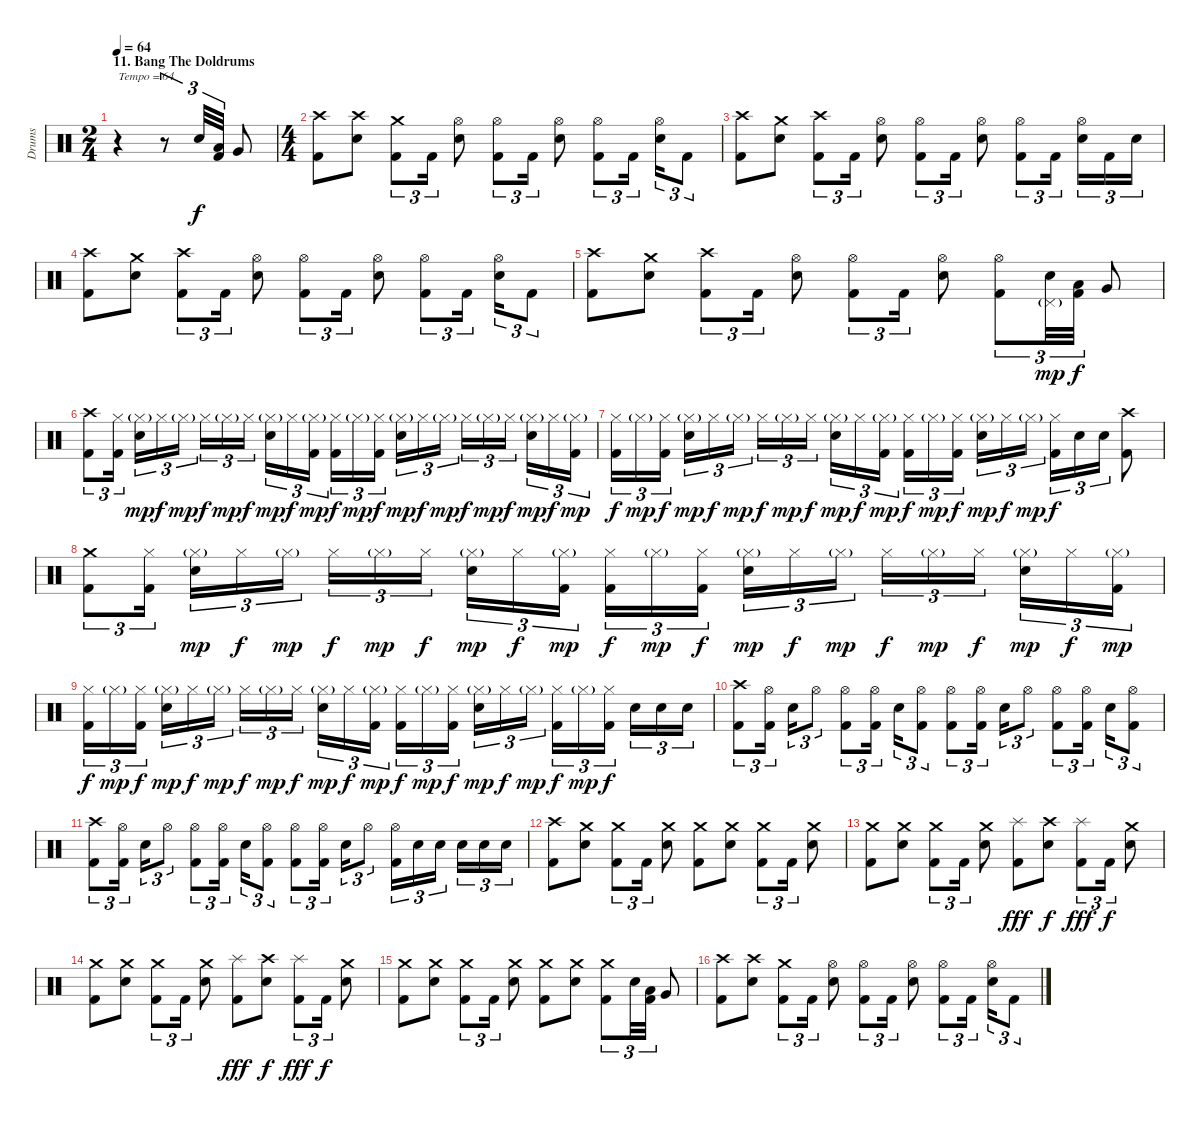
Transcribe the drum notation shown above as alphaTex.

\track ("Drums" "Drums") {instrument percussion}
\staff {score}
\articulation defaults
\ts (2 4)
\section ("" "11. Bang The Doldrums")
\tempo 64
\clef neutral
\ks c
r.4{txt "Tempo = 64" dy f} r.8{tu (3 2)} "Snare (hit) 2".32{tu (3 2)} ("Low Tom (hit)" "Kick (hit) 2").32{tu (3 2)} "Very Low Tom (hit)".8 |
\ts (4 4)
("Crash high (hit)" "Kick (hit) 2").8 ("Crash high (hit)" "Snare (hit) 2").8 ("Crash medium (hit)" "Kick (hit) 2").8{tu (3 2)} "Kick (hit) 2".16{tu (3 2)} ("Hi-Hat (open)" "Snare (hit) 2").8 ("Hi-Hat (open)" "Kick (hit) 2").8{tu (3 2)} "Kick (hit) 2".16{tu (3 2)} ("Hi-Hat (open)" "Snare (hit) 2").8 ("Hi-Hat (open)" "Kick (hit) 2").8{tu (3 2)} "Kick (hit) 2".16{tu (3 2)} ("Hi-Hat (open)" "Snare (hit) 2").16{tu (3 2)} "Kick (hit) 2".8{tu (3 2)} |
("Crash high (hit)" "Kick (hit) 2").8 ("Crash medium (hit)" "Snare (hit) 2").8 ("Crash high (hit)" "Kick (hit) 2").8{tu (3 2)} "Kick (hit) 2".16{tu (3 2)} ("Hi-Hat (open)" "Snare (hit) 2").8 ("Hi-Hat (open)" "Kick (hit) 2").8{tu (3 2)} "Kick (hit) 2".16{tu (3 2)} ("Hi-Hat (open)" "Snare (hit) 2").8 ("Hi-Hat (open)" "Kick (hit) 2").8{tu (3 2)} "Kick (hit) 2".16{tu (3 2)} ("Hi-Hat (open)" "Snare (hit) 2").16{tu (3 2)} "Kick (hit) 2".16{tu (3 2)} "Snare (hit) 2".16{tu (3 2)} |
("Crash high (hit)" "Kick (hit) 2").8 ("Crash medium (hit)" "Snare (hit) 2").8 ("Crash high (hit)" "Kick (hit) 2").8{tu (3 2)} "Kick (hit) 2".16{tu (3 2)} ("Hi-Hat (open)" "Snare (hit) 2").8 ("Hi-Hat (open)" "Kick (hit) 2").8{tu (3 2)} "Kick (hit) 2".16{tu (3 2)} ("Hi-Hat (open)" "Snare (hit) 2").8 ("Hi-Hat (open)" "Kick (hit) 2").8{tu (3 2)} "Kick (hit) 2".16{tu (3 2)} ("Hi-Hat (open)" "Snare (hit) 2").16{tu (3 2)} "Kick (hit) 2".8{tu (3 2)} |
("Crash high (hit)" "Kick (hit) 2").8 ("Crash medium (hit)" "Snare (hit) 2").8 ("Crash high (hit)" "Kick (hit) 2").8{tu (3 2)} "Kick (hit) 2".16{tu (3 2)} ("Hi-Hat (open)" "Snare (hit) 2").8 ("Hi-Hat (open)" "Kick (hit) 2").8{tu (3 2)} "Kick (hit) 2".16{tu (3 2)} ("Hi-Hat (open)" "Snare (hit) 2").8 ("Hi-Hat (open)" "Kick (hit) 2").8{tu (3 2)} ("Pedal Hi-Hat (hit)"{g} "Snare (hit) 2").32{tu (3 2) dy mp} ("Low Tom (hit)" "Kick (hit) 2").32{tu (3 2) dy f} "Very Low Tom (hit)".8 |
("Crash high (hit)" "Kick (hit) 2").8{tu (3 2)} ("Hi-Hat (closed)" "Kick (hit) 2").16{tu (3 2)} ("Hi-Hat (closed)"{g} "Snare (hit) 2").16{tu (3 2) dy mp} "Hi-Hat (closed)".16{tu (3 2) dy f} "Hi-Hat (closed)"{g}.16{tu (3 2) dy mp} "Hi-Hat (closed)".16{tu (3 2) dy f} "Hi-Hat (closed)"{g}.16{tu (3 2) dy mp} "Hi-Hat (closed)".16{tu (3 2) dy f} ("Hi-Hat (closed)"{g} "Snare (hit) 2").16{tu (3 2) dy mp} "Hi-Hat (closed)".16{tu (3 2) dy f} ("Hi-Hat (closed)"{g} "Kick (hit) 2").16{tu (3 2) dy mp} ("Hi-Hat (closed)" "Kick (hit) 2").16{tu (3 2) dy f} "Hi-Hat (closed)"{g}.16{tu (3 2) dy mp} ("Hi-Hat (closed)" "Kick (hit) 2").16{tu (3 2) dy f} ("Hi-Hat (closed)"{g} "Snare (hit) 2").16{tu (3 2) dy mp} "Hi-Hat (closed)".16{tu (3 2) dy f} "Hi-Hat (closed)"{g}.16{tu (3 2) dy mp} "Hi-Hat (closed)".16{tu (3 2) dy f} "Hi-Hat (closed)"{g}.16{tu (3 2) dy mp} "Hi-Hat (closed)".16{tu (3 2) dy f} ("Hi-Hat (closed)"{g} "Snare (hit) 2").16{tu (3 2) dy mp} "Hi-Hat (closed)".16{tu (3 2) dy f} ("Hi-Hat (closed)"{g} "Kick (hit) 2").16{tu (3 2) dy mp} |
("Hi-Hat (closed)" "Kick (hit) 2").16{tu (3 2) dy f} "Hi-Hat (closed)"{g}.16{tu (3 2) dy mp} ("Hi-Hat (closed)" "Kick (hit) 2").16{tu (3 2) dy f} ("Hi-Hat (closed)"{g} "Snare (hit) 2").16{tu (3 2) dy mp} "Hi-Hat (closed)".16{tu (3 2) dy f} "Hi-Hat (closed)"{g}.16{tu (3 2) dy mp} "Hi-Hat (closed)".16{tu (3 2) dy f} "Hi-Hat (closed)"{g}.16{tu (3 2) dy mp} "Hi-Hat (closed)".16{tu (3 2) dy f} ("Hi-Hat (closed)"{g} "Snare (hit) 2").16{tu (3 2) dy mp} "Hi-Hat (closed)".16{tu (3 2) dy f} ("Hi-Hat (closed)"{g} "Kick (hit) 2").16{tu (3 2) dy mp} ("Hi-Hat (closed)" "Kick (hit) 2").16{tu (3 2) dy f} "Hi-Hat (closed)"{g}.16{tu (3 2) dy mp} ("Hi-Hat (closed)" "Kick (hit) 2").16{tu (3 2) dy f} ("Hi-Hat (closed)"{g} "Snare (hit) 2").16{tu (3 2) dy mp} "Hi-Hat (closed)".16{tu (3 2) dy f} "Hi-Hat (closed)"{g}.16{tu (3 2) dy mp} ("Hi-Hat (closed)" "Kick (hit) 2").16{tu (3 2) dy f} "Snare (hit) 2".16{tu (3 2)} "Snare (hit) 2".16{tu (3 2)} ("Crash high (hit)" "Kick (hit) 2").8 |
("Crash medium (hit)" "Kick (hit) 2").8{tu (3 2)} ("Hi-Hat (closed)" "Kick (hit) 2").16{tu (3 2)} ("Hi-Hat (closed)"{g} "Snare (hit) 2").16{tu (3 2) dy mp} "Hi-Hat (closed)".16{tu (3 2) dy f} "Hi-Hat (closed)"{g}.16{tu (3 2) dy mp} "Hi-Hat (closed)".16{tu (3 2) dy f} "Hi-Hat (closed)"{g}.16{tu (3 2) dy mp} "Hi-Hat (closed)".16{tu (3 2) dy f} ("Hi-Hat (closed)"{g} "Snare (hit) 2").16{tu (3 2) dy mp} "Hi-Hat (closed)".16{tu (3 2) dy f} ("Hi-Hat (closed)"{g} "Kick (hit) 2").16{tu (3 2) dy mp} ("Hi-Hat (closed)" "Kick (hit) 2").16{tu (3 2) dy f} "Hi-Hat (closed)"{g}.16{tu (3 2) dy mp} ("Hi-Hat (closed)" "Kick (hit) 2").16{tu (3 2) dy f} ("Hi-Hat (closed)"{g} "Snare (hit) 2").16{tu (3 2) dy mp} "Hi-Hat (closed)".16{tu (3 2) dy f} "Hi-Hat (closed)"{g}.16{tu (3 2) dy mp} "Hi-Hat (closed)".16{tu (3 2) dy f} "Hi-Hat (closed)"{g}.16{tu (3 2) dy mp} "Hi-Hat (closed)".16{tu (3 2) dy f} ("Hi-Hat (closed)"{g} "Snare (hit) 2").16{tu (3 2) dy mp} "Hi-Hat (closed)".16{tu (3 2) dy f} ("Hi-Hat (closed)"{g} "Kick (hit) 2").16{tu (3 2) dy mp} |
("Hi-Hat (closed)" "Kick (hit) 2").16{tu (3 2) dy f} "Hi-Hat (closed)"{g}.16{tu (3 2) dy mp} ("Hi-Hat (closed)" "Kick (hit) 2").16{tu (3 2) dy f} ("Hi-Hat (closed)"{g} "Snare (hit) 2").16{tu (3 2) dy mp} "Hi-Hat (closed)".16{tu (3 2) dy f} "Hi-Hat (closed)"{g}.16{tu (3 2) dy mp} "Hi-Hat (closed)".16{tu (3 2) dy f} "Hi-Hat (closed)"{g}.16{tu (3 2) dy mp} "Hi-Hat (closed)".16{tu (3 2) dy f} ("Hi-Hat (closed)"{g} "Snare (hit) 2").16{tu (3 2) dy mp} "Hi-Hat (closed)".16{tu (3 2) dy f} ("Hi-Hat (closed)"{g} "Kick (hit) 2").16{tu (3 2) dy mp} ("Hi-Hat (closed)" "Kick (hit) 2").16{tu (3 2) dy f} "Hi-Hat (closed)"{g}.16{tu (3 2) dy mp} ("Hi-Hat (closed)" "Kick (hit) 2").16{tu (3 2) dy f} ("Hi-Hat (closed)"{g} "Snare (hit) 2").16{tu (3 2) dy mp} "Hi-Hat (closed)".16{tu (3 2) dy f} "Hi-Hat (closed)"{g}.16{tu (3 2) dy mp} ("Hi-Hat (closed)" "Kick (hit) 2").16{tu (3 2) dy f} "Hi-Hat (closed)"{g}.16{tu (3 2) dy mp} ("Hi-Hat (closed)" "Kick (hit) 2").16{tu (3 2) dy f} "Snare (hit) 2".16{tu (3 2)} "Snare (hit) 2".16{tu (3 2)} "Snare (hit) 2".16{tu (3 2)} |
("Crash high (hit)" "Kick (hit) 2").8{tu (3 2)} ("Hi-Hat (open)" "Kick (hit) 2").16{tu (3 2)} "Snare (hit) 2".16{tu (3 2)} "Hi-Hat (open)".8{tu (3 2)} ("Hi-Hat (open)" "Kick (hit) 2").8{tu (3 2)} ("Hi-Hat (open)" "Kick (hit) 2").16{tu (3 2)} "Snare (hit) 2".16{tu (3 2)} ("Hi-Hat (open)" "Kick (hit) 2").8{tu (3 2)} ("Hi-Hat (open)" "Kick (hit) 2").8{tu (3 2)} ("Hi-Hat (open)" "Kick (hit) 2").16{tu (3 2)} "Snare (hit) 2".16{tu (3 2)} "Hi-Hat (open)".8{tu (3 2)} ("Hi-Hat (open)" "Kick (hit) 2").8{tu (3 2)} ("Hi-Hat (open)" "Kick (hit) 2").16{tu (3 2)} "Snare (hit) 2".16{tu (3 2)} ("Hi-Hat (open)" "Kick (hit) 2").8{tu (3 2)} |
("Crash high (hit)" "Kick (hit) 2").8{tu (3 2)} ("Hi-Hat (open)" "Kick (hit) 2").16{tu (3 2)} "Snare (hit) 2".16{tu (3 2)} "Hi-Hat (open)".8{tu (3 2)} ("Hi-Hat (open)" "Kick (hit) 2").8{tu (3 2)} ("Hi-Hat (open)" "Kick (hit) 2").16{tu (3 2)} "Snare (hit) 2".16{tu (3 2)} ("Hi-Hat (open)" "Kick (hit) 2").8{tu (3 2)} ("Hi-Hat (open)" "Kick (hit) 2").8{tu (3 2)} ("Hi-Hat (open)" "Kick (hit) 2").16{tu (3 2)} "Snare (hit) 2".16{tu (3 2)} "Hi-Hat (open)".8{tu (3 2)} ("Hi-Hat (open)" "Kick (hit) 2").16{tu (3 2)} "Snare (hit) 2".16{tu (3 2)} "Snare (hit) 2".16{tu (3 2)} "Snare (hit) 2".16{tu (3 2)} "Snare (hit) 2".16{tu (3 2)} "Snare (hit) 2".16{tu (3 2)} |
("Crash high (hit)" "Kick (hit) 2").8 ("Crash medium (hit)" "Snare (hit) 2").8 ("Crash medium (hit)" "Kick (hit) 2").8{tu (3 2)} "Kick (hit) 2".16{tu (3 2)} ("Crash medium (hit)" "Snare (hit) 2").8 ("Crash medium (hit)" "Kick (hit) 2").8 ("Crash medium (hit)" "Snare (hit) 2").8 ("Crash medium (hit)" "Kick (hit) 2").8{tu (3 2)} "Kick (hit) 2".16{tu (3 2)} ("Crash medium (hit)" "Snare (hit) 2").8 |
("Crash medium (hit)" "Kick (hit) 2").8 ("Crash medium (hit)" "Snare (hit) 2").8 ("Crash medium (hit)" "Kick (hit) 2").8{tu (3 2)} "Kick (hit) 2".16{tu (3 2)} ("Crash medium (hit)" "Snare (hit) 2").8 ("Splash (hit)" "Kick (hit) 2").8{dy fff} ("Crash high (hit)" "Snare (hit) 2").8{dy f} ("Splash (hit)" "Kick (hit) 2").8{tu (3 2) dy fff} "Kick (hit) 2".16{tu (3 2) dy f} ("Crash medium (hit)" "Snare (hit) 2").8 |
("Crash medium (hit)" "Kick (hit) 2").8 ("Crash medium (hit)" "Snare (hit) 2").8 ("Crash medium (hit)" "Kick (hit) 2").8{tu (3 2)} "Kick (hit) 2".16{tu (3 2)} ("Crash medium (hit)" "Snare (hit) 2").8 ("Splash (hit)" "Kick (hit) 2").8{dy fff} ("Crash high (hit)" "Snare (hit) 2").8{dy f} ("Splash (hit)" "Kick (hit) 2").8{tu (3 2) dy fff} "Kick (hit) 2".16{tu (3 2) dy f} ("Crash medium (hit)" "Snare (hit) 2").8 |
("Crash medium (hit)" "Kick (hit) 2").8 ("Crash medium (hit)" "Snare (hit) 2").8 ("Crash medium (hit)" "Kick (hit) 2").8{tu (3 2)} "Kick (hit) 2".16{tu (3 2)} ("Crash medium (hit)" "Snare (hit) 2").8 ("Crash medium (hit)" "Kick (hit) 2").8 ("Crash medium (hit)" "Snare (hit) 2").8 ("Crash medium (hit)" "Kick (hit) 2").8{tu (3 2)} "Snare (hit) 2".32{tu (3 2)} ("Low Tom (hit)" "Kick (hit) 2").32{tu (3 2)} "Very Low Tom (hit)".8 |
("Crash high (hit)" "Kick (hit) 2").8 ("Crash high (hit)" "Snare (hit) 2").8 ("Crash medium (hit)" "Kick (hit) 2").8{tu (3 2)} "Kick (hit) 2".16{tu (3 2)} ("Hi-Hat (open)" "Snare (hit) 2").8 ("Hi-Hat (open)" "Kick (hit) 2").8{tu (3 2)} "Kick (hit) 2".16{tu (3 2)} ("Hi-Hat (open)" "Snare (hit) 2").8 ("Hi-Hat (open)" "Kick (hit) 2").8{tu (3 2)} "Kick (hit) 2".16{tu (3 2)} ("Hi-Hat (open)" "Snare (hit) 2").16{tu (3 2)} "Kick (hit) 2".8{tu (3 2)}
